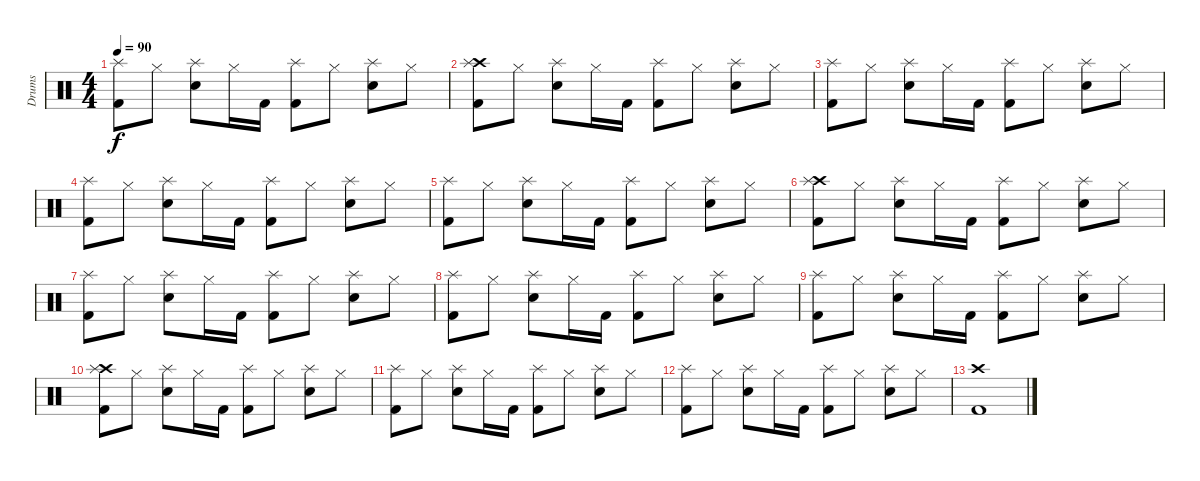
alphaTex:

\track ("Drums" "Drums") {instrument percussion}
\staff {score}
\articulation defaults
\ts (4 4)
\tempo 90
\clef neutral
\ks c
("Kick (hit) 2" "Splash (hit)").8{dy f} "Hi-Hat (closed)".8 ("Snare (hit) 2" "Splash (hit)").8 "Hi-Hat (closed)".16 "Kick (hit) 2".16 ("Kick (hit) 2" "Splash (hit)").8 "Hi-Hat (closed)".8 ("Snare (hit) 2" "Splash (hit)").8 "Hi-Hat (closed)".8 |
("Kick (hit) 2" "Crash high (hit)" "Splash (hit)").8 "Hi-Hat (closed)".8 ("Snare (hit) 2" "Splash (hit)").8 "Hi-Hat (closed)".16 "Kick (hit) 2".16 ("Kick (hit) 2" "Splash (hit)").8 "Hi-Hat (closed)".8 ("Snare (hit) 2" "Splash (hit)").8 "Hi-Hat (closed)".8 |
("Kick (hit) 2" "Splash (hit)").8 "Hi-Hat (closed)".8 ("Snare (hit) 2" "Splash (hit)").8 "Hi-Hat (closed)".16 "Kick (hit) 2".16 ("Kick (hit) 2" "Splash (hit)").8 "Hi-Hat (closed)".8 ("Snare (hit) 2" "Splash (hit)").8 "Hi-Hat (closed)".8 |
("Kick (hit) 2" "Splash (hit)").8 "Hi-Hat (closed)".8 ("Snare (hit) 2" "Splash (hit)").8 "Hi-Hat (closed)".16 "Kick (hit) 2".16 ("Kick (hit) 2" "Splash (hit)").8 "Hi-Hat (closed)".8 ("Snare (hit) 2" "Splash (hit)").8 "Hi-Hat (closed)".8 |
("Kick (hit) 2" "Splash (hit)").8 "Hi-Hat (closed)".8 ("Snare (hit) 2" "Splash (hit)").8 "Hi-Hat (closed)".16 "Kick (hit) 2".16 ("Kick (hit) 2" "Splash (hit)").8 "Hi-Hat (closed)".8 ("Snare (hit) 2" "Splash (hit)").8 "Hi-Hat (closed)".8 |
("Kick (hit) 2" "Crash high (hit)" "Splash (hit)").8 "Hi-Hat (closed)".8 ("Snare (hit) 2" "Splash (hit)").8 "Hi-Hat (closed)".16 "Kick (hit) 2".16 ("Kick (hit) 2" "Splash (hit)").8 "Hi-Hat (closed)".8 ("Snare (hit) 2" "Splash (hit)").8 "Hi-Hat (closed)".8 |
("Kick (hit) 2" "Splash (hit)").8 "Hi-Hat (closed)".8 ("Snare (hit) 2" "Splash (hit)").8 "Hi-Hat (closed)".16 "Kick (hit) 2".16 ("Kick (hit) 2" "Splash (hit)").8 "Hi-Hat (closed)".8 ("Snare (hit) 2" "Splash (hit)").8 "Hi-Hat (closed)".8 |
("Kick (hit) 2" "Splash (hit)").8 "Hi-Hat (closed)".8 ("Snare (hit) 2" "Splash (hit)").8 "Hi-Hat (closed)".16 "Kick (hit) 2".16 ("Kick (hit) 2" "Splash (hit)").8 "Hi-Hat (closed)".8 ("Snare (hit) 2" "Splash (hit)").8 "Hi-Hat (closed)".8 |
("Kick (hit) 2" "Splash (hit)").8 "Hi-Hat (closed)".8 ("Snare (hit) 2" "Splash (hit)").8 "Hi-Hat (closed)".16 "Kick (hit) 2".16 ("Kick (hit) 2" "Splash (hit)").8 "Hi-Hat (closed)".8 ("Snare (hit) 2" "Splash (hit)").8 "Hi-Hat (closed)".8 |
("Kick (hit) 2" "Crash high (hit)" "Splash (hit)").8 "Hi-Hat (closed)".8 ("Snare (hit) 2" "Splash (hit)").8 "Hi-Hat (closed)".16 "Kick (hit) 2".16 ("Kick (hit) 2" "Splash (hit)").8 "Hi-Hat (closed)".8 ("Snare (hit) 2" "Splash (hit)").8 "Hi-Hat (closed)".8 |
("Kick (hit) 2" "Splash (hit)").8 "Hi-Hat (closed)".8 ("Snare (hit) 2" "Splash (hit)").8 "Hi-Hat (closed)".16 "Kick (hit) 2".16 ("Kick (hit) 2" "Splash (hit)").8 "Hi-Hat (closed)".8 ("Snare (hit) 2" "Splash (hit)").8 "Hi-Hat (closed)".8 |
("Kick (hit) 2" "Splash (hit)").8 "Hi-Hat (closed)".8 ("Snare (hit) 2" "Splash (hit)").8 "Hi-Hat (closed)".16 "Kick (hit) 2".16 ("Kick (hit) 2" "Splash (hit)").8 "Hi-Hat (closed)".8 ("Snare (hit) 2" "Splash (hit)").8 "Hi-Hat (closed)".8 |
("Kick (hit) 2" "Crash high (hit)").1
